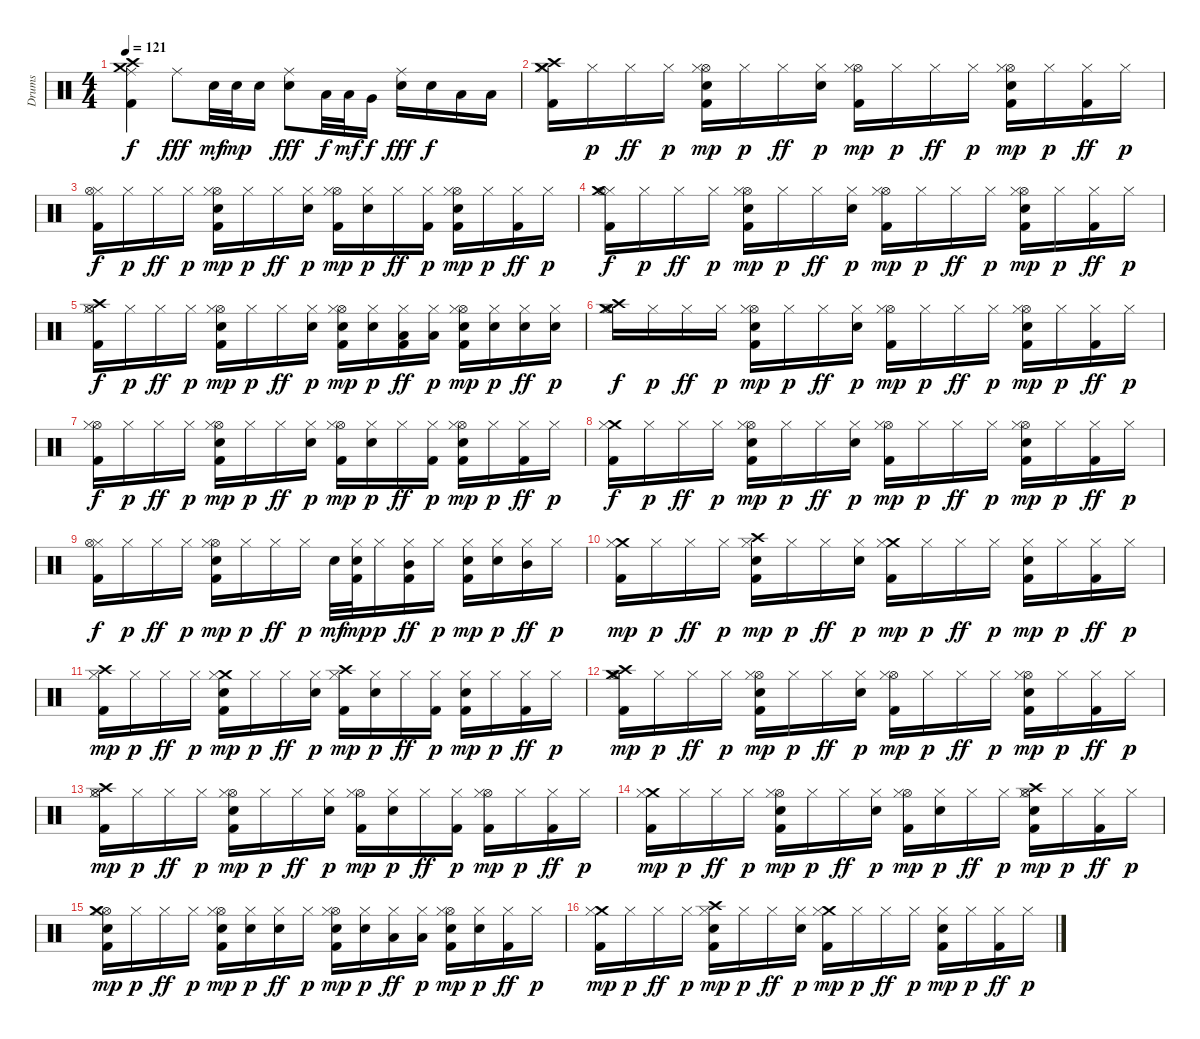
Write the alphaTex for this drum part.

\track ("Drums" "Drums") {instrument percussion}
\staff {score}
\articulation defaults
\ts (4 4)
\tempo 121
\clef neutral
\ks c
("Kick (hit) 2" "Crash high (hit)" "Crash medium (hit)" "Ride (middle)").4{dy f} "Ride (middle)".8{dy fff} "Electric Snare (hit)".32{dy mf} "Electric Snare (hit)".32{dy mp} "Electric Snare (hit)".16 ("Snare (hit) 2" "Ride (middle)").8{dy fff} "Low Tom (hit)".32{dy f} "Low Tom (hit)".32{dy mf} "Very Low Tom (hit)".16{dy f} ("Snare (hit) 2" "Ride (middle)").16{dy fff} "Electric Snare (hit)".16{dy f} "Low Tom (hit)".16 "Low Tom (hit)".16 |
("Hi-Hat (closed)" "Crash high (hit)" "Kick (hit) 2" "Crash medium (hit)").16 "Hi-Hat (closed)".16{dy p} "Hi-Hat (closed)".16{dy ff} "Hi-Hat (closed)".16{dy p} ("Kick (hit) 2" "Hi-Hat (open)" "Electric Snare (hit)" "Hi-Hat (closed)").16{dy mp} "Hi-Hat (closed)".16{dy p} "Hi-Hat (closed)".16{dy ff} ("Electric Snare (hit)" "Hi-Hat (closed)").16{dy p} ("Kick (hit) 2" "Hi-Hat (open)" "Hi-Hat (closed)").16{dy mp} "Hi-Hat (closed)".16{dy p} "Hi-Hat (closed)".16{dy ff} "Hi-Hat (closed)".16{dy p} ("Kick (hit) 2" "Hi-Hat (open)" "Electric Snare (hit)" "Hi-Hat (closed)").16{dy mp} "Hi-Hat (closed)".16{dy p} ("Kick (hit) 2" "Hi-Hat (closed)").16{dy ff} "Hi-Hat (closed)".16{dy p} |
("Hi-Hat (closed)" "Hi-Hat (open)" "Kick (hit) 2").16{dy f} "Hi-Hat (closed)".16{dy p} "Hi-Hat (closed)".16{dy ff} "Hi-Hat (closed)".16{dy p} ("Kick (hit) 2" "Hi-Hat (open)" "Electric Snare (hit)" "Hi-Hat (closed)").16{dy mp} "Hi-Hat (closed)".16{dy p} "Hi-Hat (closed)".16{dy ff} ("Electric Snare (hit)" "Hi-Hat (closed)").16{dy p} ("Kick (hit) 2" "Hi-Hat (open)" "Hi-Hat (closed)").16{dy mp} ("Electric Snare (hit)" "Hi-Hat (closed)").16{dy p} "Hi-Hat (closed)".16{dy ff} ("Kick (hit) 2" "Hi-Hat (closed)").16{dy p} ("Kick (hit) 2" "Hi-Hat (open)" "Electric Snare (hit)" "Hi-Hat (closed)").16{dy mp} "Hi-Hat (closed)".16{dy p} ("Kick (hit) 2" "Hi-Hat (closed)").16{dy ff} "Hi-Hat (closed)".16{dy p} |
("Hi-Hat (closed)" "Hi-Hat (open)" "Kick (hit) 2" "Crash medium (hit)").16{dy f} "Hi-Hat (closed)".16{dy p} "Hi-Hat (closed)".16{dy ff} "Hi-Hat (closed)".16{dy p} ("Kick (hit) 2" "Hi-Hat (open)" "Electric Snare (hit)" "Hi-Hat (closed)").16{dy mp} "Hi-Hat (closed)".16{dy p} "Hi-Hat (closed)".16{dy ff} ("Electric Snare (hit)" "Hi-Hat (closed)").16{dy p} ("Kick (hit) 2" "Hi-Hat (open)" "Hi-Hat (closed)").16{dy mp} "Hi-Hat (closed)".16{dy p} "Hi-Hat (closed)".16{dy ff} "Hi-Hat (closed)".16{dy p} ("Kick (hit) 2" "Hi-Hat (open)" "Electric Snare (hit)" "Hi-Hat (closed)").16{dy mp} "Hi-Hat (closed)".16{dy p} ("Kick (hit) 2" "Hi-Hat (closed)").16{dy ff} "Hi-Hat (closed)".16{dy p} |
("Hi-Hat (closed)" "Crash high (hit)" "Hi-Hat (open)" "Kick (hit) 2").16{dy f} "Hi-Hat (closed)".16{dy p} "Hi-Hat (closed)".16{dy ff} "Hi-Hat (closed)".16{dy p} ("Kick (hit) 2" "Hi-Hat (open)" "Electric Snare (hit)" "Hi-Hat (closed)").16{dy mp} "Hi-Hat (closed)".16{dy p} "Hi-Hat (closed)".16{dy ff} ("Electric Snare (hit)" "Hi-Hat (closed)").16{dy p} ("Kick (hit) 2" "Hi-Hat (open)" "Snare (hit) 2" "Hi-Hat (closed)").16{dy mp} ("Electric Snare (hit)" "Hi-Hat (closed)").16{dy p} ("Kick (hit) 2" "Low Tom (hit)" "Hi-Hat (closed)").16{dy ff} ("Low Tom (hit)" "Hi-Hat (closed)").16{dy p} ("Kick (hit) 2" "Hi-Hat (open)" "Snare (hit) 2" "Hi-Hat (closed)").16{dy mp} ("Electric Snare (hit)" "Hi-Hat (closed)").16{dy p} ("Electric Snare (hit)" "Hi-Hat (closed)").16{dy ff} ("Electric Snare (hit)" "Hi-Hat (closed)").16{dy p} |
("Crash high (hit)" "Crash medium (hit)" "Hi-Hat (closed)" "Hi-Hat (open)").16{dy f} "Hi-Hat (closed)".16{dy p} "Hi-Hat (closed)".16{dy ff} "Hi-Hat (closed)".16{dy p} ("Kick (hit) 2" "Hi-Hat (open)" "Electric Snare (hit)" "Hi-Hat (closed)").16{dy mp} "Hi-Hat (closed)".16{dy p} "Hi-Hat (closed)".16{dy ff} ("Electric Snare (hit)" "Hi-Hat (closed)").16{dy p} ("Kick (hit) 2" "Hi-Hat (open)" "Hi-Hat (closed)").16{dy mp} "Hi-Hat (closed)".16{dy p} "Hi-Hat (closed)".16{dy ff} "Hi-Hat (closed)".16{dy p} ("Kick (hit) 2" "Hi-Hat (open)" "Electric Snare (hit)" "Hi-Hat (closed)").16{dy mp} "Hi-Hat (closed)".16{dy p} ("Kick (hit) 2" "Hi-Hat (closed)").16{dy ff} "Hi-Hat (closed)".16{dy p} |
("Kick (hit) 2" "Hi-Hat (open)" "Hi-Hat (closed)").16{dy f} "Hi-Hat (closed)".16{dy p} "Hi-Hat (closed)".16{dy ff} "Hi-Hat (closed)".16{dy p} ("Kick (hit) 2" "Hi-Hat (open)" "Electric Snare (hit)" "Hi-Hat (closed)").16{dy mp} "Hi-Hat (closed)".16{dy p} "Hi-Hat (closed)".16{dy ff} ("Electric Snare (hit)" "Hi-Hat (closed)").16{dy p} ("Kick (hit) 2" "Hi-Hat (open)" "Hi-Hat (closed)").16{dy mp} ("Electric Snare (hit)" "Hi-Hat (closed)").16{dy p} "Hi-Hat (closed)".16{dy ff} ("Kick (hit) 2" "Hi-Hat (closed)").16{dy p} ("Kick (hit) 2" "Hi-Hat (open)" "Electric Snare (hit)" "Hi-Hat (closed)").16{dy mp} "Hi-Hat (closed)".16{dy p} ("Kick (hit) 2" "Hi-Hat (closed)").16{dy ff} "Hi-Hat (closed)".16{dy p} |
("Crash medium (hit)" "Hi-Hat (closed)" "Kick (hit) 2").16{dy f} "Hi-Hat (closed)".16{dy p} "Hi-Hat (closed)".16{dy ff} "Hi-Hat (closed)".16{dy p} ("Kick (hit) 2" "Hi-Hat (open)" "Electric Snare (hit)" "Hi-Hat (closed)").16{dy mp} "Hi-Hat (closed)".16{dy p} "Hi-Hat (closed)".16{dy ff} ("Electric Snare (hit)" "Hi-Hat (closed)").16{dy p} ("Kick (hit) 2" "Hi-Hat (open)" "Hi-Hat (closed)").16{dy mp} "Hi-Hat (closed)".16{dy p} "Hi-Hat (closed)".16{dy ff} "Hi-Hat (closed)".16{dy p} ("Kick (hit) 2" "Hi-Hat (open)" "Electric Snare (hit)" "Hi-Hat (closed)").16{dy mp} "Hi-Hat (closed)".16{dy p} ("Kick (hit) 2" "Hi-Hat (closed)").16{dy ff} "Hi-Hat (closed)".16{dy p} |
("Hi-Hat (closed)" "Hi-Hat (open)" "Kick (hit) 2").16{dy f} "Hi-Hat (closed)".16{dy p} "Hi-Hat (closed)".16{dy ff} "Hi-Hat (closed)".16{dy p} ("Kick (hit) 2" "Hi-Hat (open)" "Electric Snare (hit)" "Hi-Hat (closed)").16{dy mp} "Hi-Hat (closed)".16{dy p} "Hi-Hat (closed)".16{dy ff} "Hi-Hat (closed)".16{dy p} "Electric Snare (hit)".32{dy mf} ("Snare (hit) 2" "Kick (hit) 2" "Hi-Hat (closed)").32{dy mp} "Hi-Hat (closed)".16{dy p} ("Mid Tom (hit)" "Kick (hit) 2" "Hi-Hat (closed)").16{dy ff} "Hi-Hat (closed)".16{dy p} ("Snare (hit) 2" "Kick (hit) 2" "Hi-Hat (closed)").16{dy mp} ("Snare (hit) 2" "Hi-Hat (closed)").16{dy p} ("Mid Tom (hit)" "Hi-Hat (closed)").16{dy ff} "Hi-Hat (closed)".16{dy p} |
("Crash medium (hit)" "Kick (hit) 2" "Hi-Hat (closed)").16{dy mp} "Hi-Hat (closed)".16{dy p} "Hi-Hat (closed)".16{dy ff} "Hi-Hat (closed)".16{dy p} ("Crash high (hit)" "Kick (hit) 2" "Electric Snare (hit)" "Hi-Hat (closed)").16{dy mp} "Hi-Hat (closed)".16{dy p} "Hi-Hat (closed)".16{dy ff} ("Electric Snare (hit)" "Hi-Hat (closed)").16{dy p} ("Crash medium (hit)" "Kick (hit) 2" "Hi-Hat (closed)").16{dy mp} "Hi-Hat (closed)".16{dy p} "Hi-Hat (closed)".16{dy ff} "Hi-Hat (closed)".16{dy p} ("Kick (hit) 2" "Electric Snare (hit)" "Hi-Hat (closed)").16{dy mp} "Hi-Hat (closed)".16{dy p} ("Kick (hit) 2" "Hi-Hat (closed)").16{dy ff} "Hi-Hat (closed)".16{dy p} |
("Crash high (hit)" "Kick (hit) 2" "Hi-Hat (closed)").16{dy mp} "Hi-Hat (closed)".16{dy p} "Hi-Hat (closed)".16{dy ff} "Hi-Hat (closed)".16{dy p} ("Crash medium (hit)" "Kick (hit) 2" "Electric Snare (hit)" "Hi-Hat (closed)").16{dy mp} "Hi-Hat (closed)".16{dy p} "Hi-Hat (closed)".16{dy ff} ("Electric Snare (hit)" "Hi-Hat (closed)").16{dy p} ("Crash high (hit)" "Kick (hit) 2" "Hi-Hat (closed)").16{dy mp} ("Electric Snare (hit)" "Hi-Hat (closed)").16{dy p} "Hi-Hat (closed)".16{dy ff} ("Kick (hit) 2" "Hi-Hat (closed)").16{dy p} ("Kick (hit) 2" "Electric Snare (hit)" "Hi-Hat (closed)").16{dy mp} "Hi-Hat (closed)".16{dy p} ("Kick (hit) 2" "Hi-Hat (closed)").16{dy ff} "Hi-Hat (closed)".16{dy p} |
("Kick (hit) 2" "Hi-Hat (open)" "Crash high (hit)" "Crash medium (hit)" "Hi-Hat (closed)").16{dy mp} "Hi-Hat (closed)".16{dy p} "Hi-Hat (closed)".16{dy ff} "Hi-Hat (closed)".16{dy p} ("Hi-Hat (open)" "Kick (hit) 2" "Electric Snare (hit)" "Hi-Hat (closed)").16{dy mp} "Hi-Hat (closed)".16{dy p} "Hi-Hat (closed)".16{dy ff} ("Electric Snare (hit)" "Hi-Hat (closed)").16{dy p} ("Hi-Hat (open)" "Kick (hit) 2" "Hi-Hat (closed)").16{dy mp} "Hi-Hat (closed)".16{dy p} "Hi-Hat (closed)".16{dy ff} "Hi-Hat (closed)".16{dy p} ("Hi-Hat (open)" "Kick (hit) 2" "Electric Snare (hit)" "Hi-Hat (closed)").16{dy mp} "Hi-Hat (closed)".16{dy p} ("Kick (hit) 2" "Hi-Hat (closed)").16{dy ff} "Hi-Hat (closed)".16{dy p} |
("Hi-Hat (open)" "Kick (hit) 2" "Crash high (hit)" "Hi-Hat (closed)").16{dy mp} "Hi-Hat (closed)".16{dy p} "Hi-Hat (closed)".16{dy ff} "Hi-Hat (closed)".16{dy p} ("Hi-Hat (open)" "Kick (hit) 2" "Electric Snare (hit)" "Hi-Hat (closed)").16{dy mp} "Hi-Hat (closed)".16{dy p} "Hi-Hat (closed)".16{dy ff} ("Electric Snare (hit)" "Hi-Hat (closed)").16{dy p} ("Kick (hit) 2" "Hi-Hat (open)" "Hi-Hat (closed)").16{dy mp} ("Electric Snare (hit)" "Hi-Hat (closed)").16{dy p} "Hi-Hat (closed)".16{dy ff} ("Kick (hit) 2" "Hi-Hat (closed)").16{dy p} ("Kick (hit) 2" "Hi-Hat (open)" "Hi-Hat (closed)").16{dy mp} "Hi-Hat (closed)".16{dy p} ("Kick (hit) 2" "Hi-Hat (closed)").16{dy ff} "Hi-Hat (closed)".16{dy p} |
("Kick (hit) 2" "Crash medium (hit)" "Hi-Hat (closed)").16{dy mp} "Hi-Hat (closed)".16{dy p} "Hi-Hat (closed)".16{dy ff} "Hi-Hat (closed)".16{dy p} ("Kick (hit) 2" "Hi-Hat (open)" "Electric Snare (hit)" "Hi-Hat (closed)").16{dy mp} "Hi-Hat (closed)".16{dy p} "Hi-Hat (closed)".16{dy ff} ("Electric Snare (hit)" "Hi-Hat (closed)").16{dy p} ("Kick (hit) 2" "Hi-Hat (open)" "Hi-Hat (closed)").16{dy mp} ("Electric Snare (hit)" "Hi-Hat (closed)").16{dy p} "Hi-Hat (closed)".16{dy ff} "Hi-Hat (closed)".16{dy p} ("Kick (hit) 2" "Hi-Hat (open)" "Crash high (hit)" "Electric Snare (hit)" "Hi-Hat (closed)").16{dy mp} "Hi-Hat (closed)".16{dy p} ("Kick (hit) 2" "Hi-Hat (closed)").16{dy ff} "Hi-Hat (closed)".16{dy p} |
("Kick (hit) 2" "Hi-Hat (open)" "Crash medium (hit)" "Electric Snare (hit)" "Hi-Hat (closed)").16{dy mp} "Hi-Hat (closed)".16{dy p} "Hi-Hat (closed)".16{dy ff} "Hi-Hat (closed)".16{dy p} ("Kick (hit) 2" "Hi-Hat (open)" "Electric Snare (hit)" "Hi-Hat (closed)").16{dy mp} ("Electric Snare (hit)" "Hi-Hat (closed)").16{dy p} ("Electric Snare (hit)" "Hi-Hat (closed)").16{dy ff} "Hi-Hat (closed)".16{dy p} ("Kick (hit) 2" "Hi-Hat (open)" "Electric Snare (hit)" "Hi-Hat (closed)").16{dy mp} ("Electric Snare (hit)" "Hi-Hat (closed)").16{dy p} ("Low Tom (hit)" "Hi-Hat (closed)").16{dy ff} ("Low Tom (hit)" "Hi-Hat (closed)").16{dy p} ("Kick (hit) 2" "Hi-Hat (open)" "Snare (hit) 2" "Hi-Hat (closed)").16{dy mp} ("Electric Snare (hit)" "Hi-Hat (closed)").16{dy p} ("Kick (hit) 2" "Hi-Hat (closed)").16{dy ff} "Hi-Hat (closed)".16{dy p} |
("Crash medium (hit)" "Kick (hit) 2" "Hi-Hat (closed)").16{dy mp} "Hi-Hat (closed)".16{dy p} "Hi-Hat (closed)".16{dy ff} "Hi-Hat (closed)".16{dy p} ("Crash high (hit)" "Kick (hit) 2" "Electric Snare (hit)" "Hi-Hat (closed)").16{dy mp} "Hi-Hat (closed)".16{dy p} "Hi-Hat (closed)".16{dy ff} ("Electric Snare (hit)" "Hi-Hat (closed)").16{dy p} ("Crash medium (hit)" "Kick (hit) 2" "Hi-Hat (closed)").16{dy mp} "Hi-Hat (closed)".16{dy p} "Hi-Hat (closed)".16{dy ff} "Hi-Hat (closed)".16{dy p} ("Kick (hit) 2" "Electric Snare (hit)" "Hi-Hat (closed)").16{dy mp} "Hi-Hat (closed)".16{dy p} ("Kick (hit) 2" "Hi-Hat (closed)").16{dy ff} "Hi-Hat (closed)".16{dy p}
